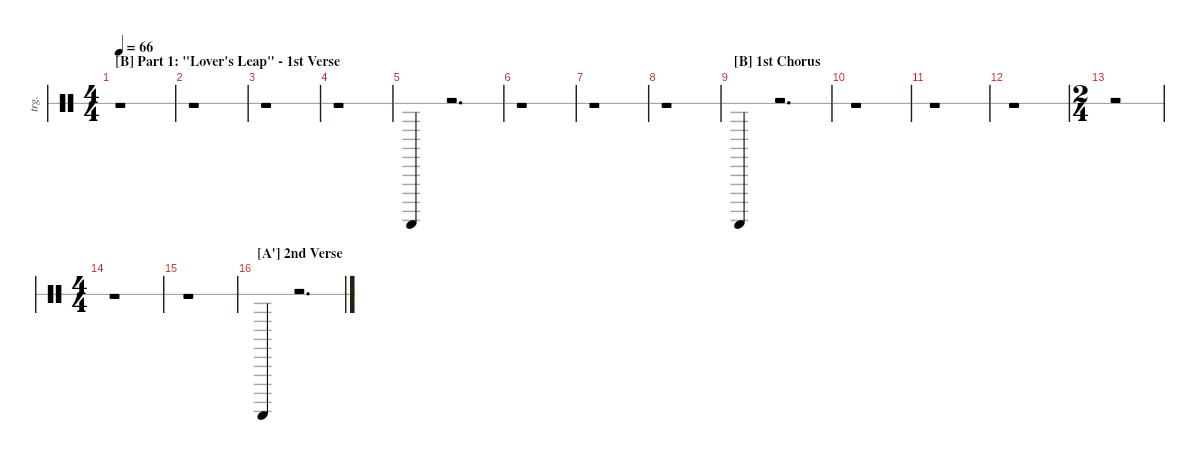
\defaultSystemsLayout 4
\hideDynamics
\bracketExtendMode nobrackets
\track ("Triangle" "trg.") {instrument percussion}
\staff {score 1}
\articulation defaults
\ts (4 4)
\section ("B" "Part 1: \"Lover's Leap\" - 1st Verse")
\tempo 66
\clef neutral
\ks c
r.1{dy mf} |
r.1 |
r.1 |
r.1 |
"Triangle (hit)".4 r.2{d} |
r.1 |
r.1 |
r.1 |
\section ("B" "1st Chorus")
"Triangle (hit)".4 r.2{d} |
r.1 |
r.1 |
r.1 |
\ts (2 4)
\beaming (8 2 2)
r.2 |
\ts (4 4)
\beaming (8 2 2 2 2)
r.1 |
r.1 |
\section ("A'" "2nd Verse")
"Triangle (hit)".4 r.2{d}
